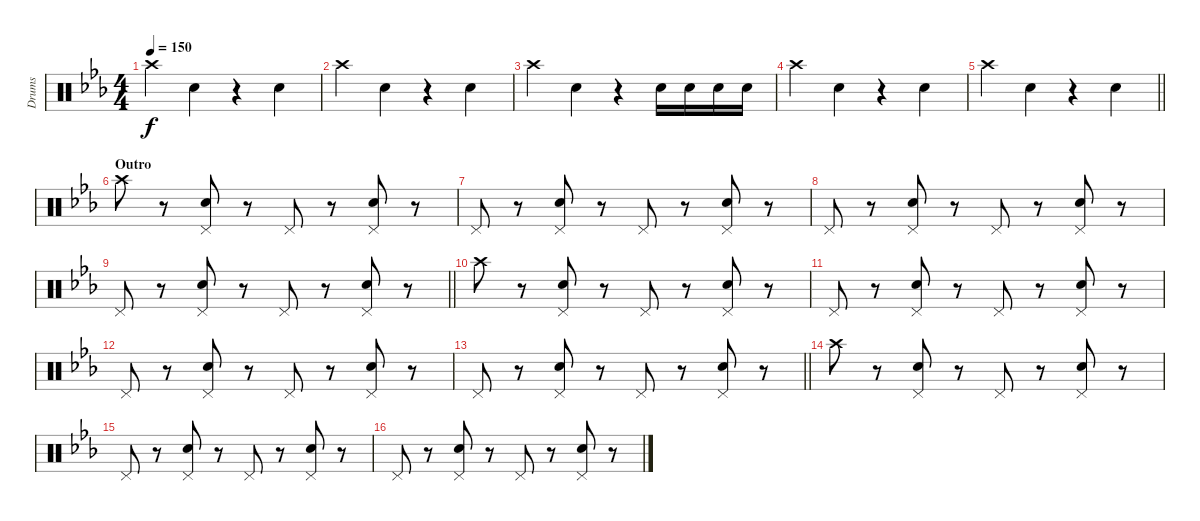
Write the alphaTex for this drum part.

\track ("Drums" "Drums") {instrument percussion}
\staff {score}
\articulation defaults
\ts (4 4)
\tempo 150
\clef neutral
\ks cminor "Crash high (hit)".4{dy f} "Electric Snare (hit)".4
r.4 "Electric Snare (hit)".4 |
"Crash high (hit)".4 "Electric Snare (hit)".4 r.4 "Electric Snare (hit)".4 |
"Crash high (hit)".4 "Electric Snare (hit)".4 r.4 "Electric Snare (hit)".16 "Electric Snare (hit)".16 "Electric Snare (hit)".16 "Electric Snare (hit)".16 |
"Crash high (hit)".4 "Electric Snare (hit)".4 r.4 "Electric Snare (hit)".4 |
\barLineRight lightlight "Crash high (hit)".4 "Electric Snare (hit)".4
r.4 "Electric Snare (hit)".4 |
\section ("" "Outro")
"Crash high (hit)".8 r.8 ("Pedal Hi-Hat (hit)" "Electric Snare (hit)").8 r.8 "Pedal Hi-Hat (hit)".8 r.8 ("Pedal Hi-Hat (hit)" "Electric Snare (hit)").8 r.8 |
"Pedal Hi-Hat (hit)".8 r.8 ("Pedal Hi-Hat (hit)" "Electric Snare (hit)").8 r.8 "Pedal Hi-Hat (hit)".8 r.8 ("Pedal Hi-Hat (hit)" "Electric Snare (hit)").8 r.8 |
"Pedal Hi-Hat (hit)".8 r.8 ("Pedal Hi-Hat (hit)" "Electric Snare (hit)").8 r.8 "Pedal Hi-Hat (hit)".8 r.8 ("Pedal Hi-Hat (hit)" "Electric Snare (hit)").8 r.8 |
\barLineRight lightlight "Pedal Hi-Hat (hit)".8
r.8 ("Pedal Hi-Hat (hit)" "Electric Snare (hit)").8 r.8 "Pedal Hi-Hat (hit)".8 r.8 ("Pedal Hi-Hat (hit)" "Electric Snare (hit)").8 r.8 |
"Crash high (hit)".8 r.8 ("Pedal Hi-Hat (hit)" "Electric Snare (hit)").8 r.8 "Pedal Hi-Hat (hit)".8 r.8 ("Pedal Hi-Hat (hit)" "Electric Snare (hit)").8 r.8 |
"Pedal Hi-Hat (hit)".8 r.8 ("Pedal Hi-Hat (hit)" "Electric Snare (hit)").8 r.8 "Pedal Hi-Hat (hit)".8 r.8 ("Pedal Hi-Hat (hit)" "Electric Snare (hit)").8 r.8 |
"Pedal Hi-Hat (hit)".8 r.8 ("Pedal Hi-Hat (hit)" "Electric Snare (hit)").8 r.8 "Pedal Hi-Hat (hit)".8 r.8 ("Pedal Hi-Hat (hit)" "Electric Snare (hit)").8 r.8 |
\barLineRight lightlight "Pedal Hi-Hat (hit)".8
r.8 ("Pedal Hi-Hat (hit)" "Electric Snare (hit)").8 r.8 "Pedal Hi-Hat (hit)".8 r.8 ("Pedal Hi-Hat (hit)" "Electric Snare (hit)").8 r.8 |
"Crash high (hit)".8 r.8 ("Pedal Hi-Hat (hit)" "Electric Snare (hit)").8 r.8 "Pedal Hi-Hat (hit)".8 r.8 ("Pedal Hi-Hat (hit)" "Electric Snare (hit)").8 r.8 |
"Pedal Hi-Hat (hit)".8 r.8 ("Pedal Hi-Hat (hit)" "Electric Snare (hit)").8 r.8 "Pedal Hi-Hat (hit)".8 r.8 ("Pedal Hi-Hat (hit)" "Electric Snare (hit)").8 r.8 |
"Pedal Hi-Hat (hit)".8 r.8 ("Pedal Hi-Hat (hit)" "Electric Snare (hit)").8 r.8 "Pedal Hi-Hat (hit)".8 r.8 ("Pedal Hi-Hat (hit)" "Electric Snare (hit)").8 r.8
